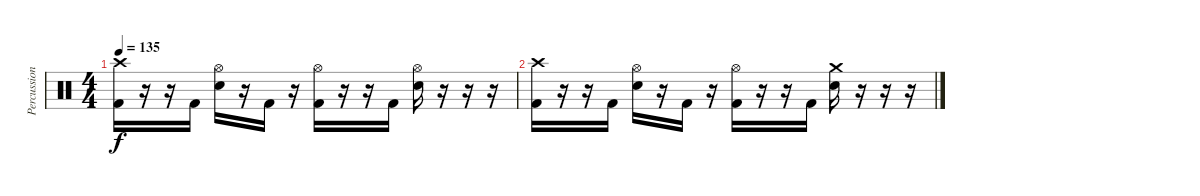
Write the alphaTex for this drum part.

\track ("Percussion" "Percussion") {instrument percussion}
\staff {score}
\articulation defaults
\ts (4 4)
\tempo 135
\clef neutral
\ks c
("Crash high (hit)" "Kick (hit) 2").16{dy f} r.16 r.16 "Kick (hit) 2".16 ("Hi-Hat (open)" "Snare (hit) 2").16 r.16 "Kick (hit) 2".16 r.16 ("Hi-Hat (open)" "Kick (hit) 2").16 r.16 r.16 "Kick (hit) 2".16 ("Hi-Hat (open)" "Snare (hit) 2").16 r.16 r.16 r.16 |
("Crash high (hit)" "Kick (hit) 2").16 r.16 r.16 "Kick (hit) 2".16 ("Hi-Hat (open)" "Snare (hit) 2").16 r.16 "Kick (hit) 2".16 r.16 ("Hi-Hat (open)" "Kick (hit) 2").16 r.16 r.16 "Kick (hit) 2".16 ("Crash medium (hit)" "Snare (hit) 2").16 r.16 r.16 r.16
